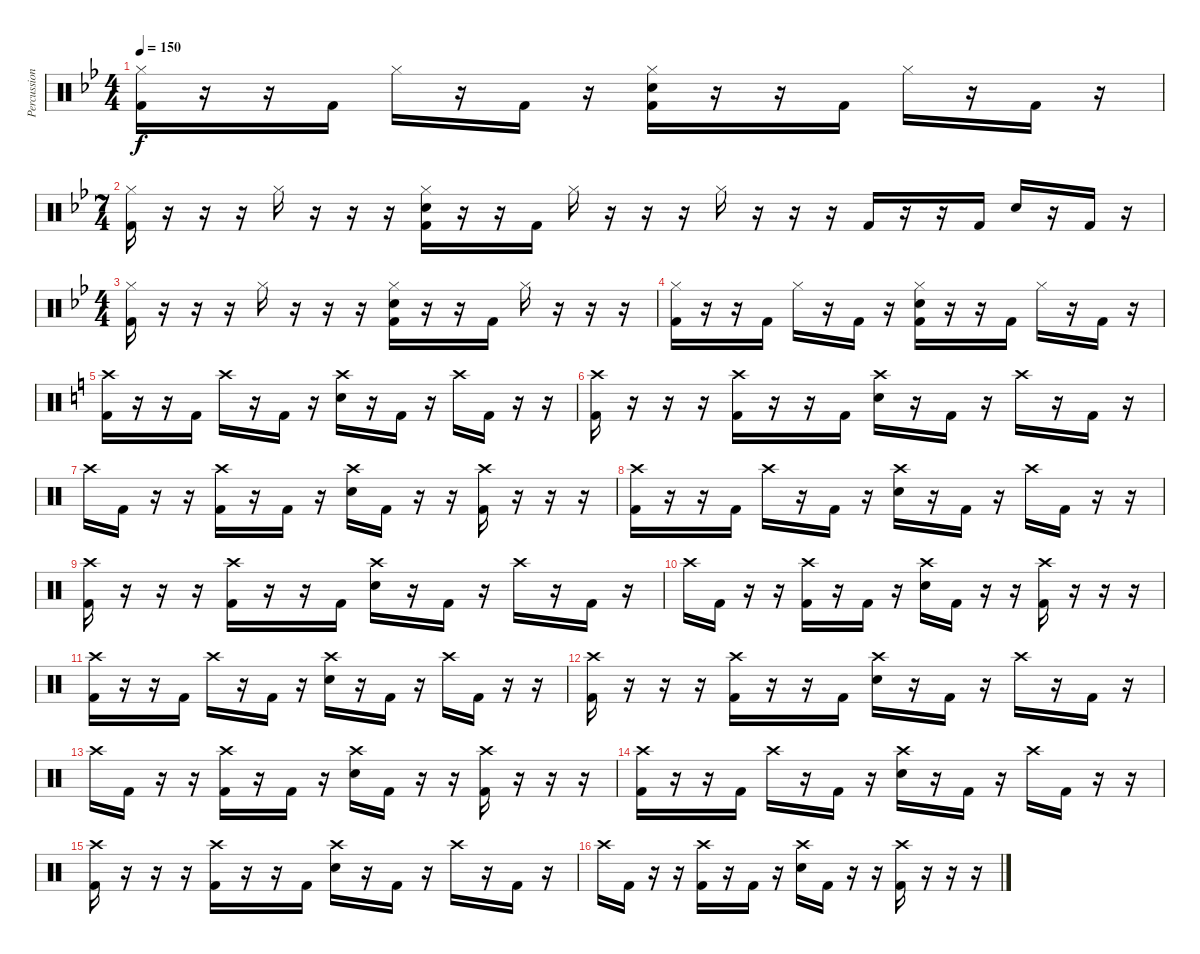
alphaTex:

\track ("Percussion" "Percussion") {instrument percussion}
\staff {score}
\articulation defaults
\ts (4 4)
\tempo 150
\clef neutral
\ks bb
("Hi-Hat (closed)" "Kick (hit) 2").16{dy f} r.16 r.16 "Kick (hit) 2".16 "Hi-Hat (closed)".16 r.16 "Kick (hit) 2".16 r.16 ("Hi-Hat (closed)" "Electric Snare (hit)" "Kick (hit) 2").16 r.16 r.16 "Kick (hit) 2".16 "Hi-Hat (closed)".16 r.16 "Kick (hit) 2".16 r.16 |
\ts (7 4)
("Hi-Hat (closed)" "Kick (hit) 2").16 r.16 r.16 r.16 "Hi-Hat (closed)".16 r.16 r.16 r.16 ("Hi-Hat (closed)" "Electric Snare (hit)" "Kick (hit) 2").16 r.16 r.16 "Kick (hit) 2".16 "Hi-Hat (closed)".16 r.16 r.16 r.16 "Hi-Hat (closed)".16 r.16 r.16 r.16 "Kick (hit) 2".16 r.16 r.16 "Kick (hit) 2".16 "Electric Snare (hit)".16 r.16 "Kick (hit) 2".16 r.16 |
\ts (4 4)
("Hi-Hat (closed)" "Kick (hit) 2").16 r.16 r.16 r.16 "Hi-Hat (closed)".16 r.16 r.16 r.16 ("Hi-Hat (closed)" "Electric Snare (hit)" "Kick (hit) 2").16 r.16 r.16 "Kick (hit) 2".16 "Hi-Hat (closed)".16 r.16 r.16 r.16 |
("Hi-Hat (closed)" "Kick (hit) 2").16 r.16 r.16 "Kick (hit) 2".16 "Hi-Hat (closed)".16 r.16 "Kick (hit) 2".16 r.16 ("Hi-Hat (closed)" "Electric Snare (hit)" "Kick (hit) 2").16 r.16 r.16 "Kick (hit) 2".16 "Hi-Hat (closed)".16 r.16 "Kick (hit) 2".16 r.16 |
\ks c
("Crash high (hit)" "Kick (hit) 2").16 r.16 r.16 "Kick (hit) 2".16 "Crash high (hit)".16 r.16 "Kick (hit) 2".16 r.16 ("Crash high (hit)" "Electric Snare (hit)").16 r.16 "Kick (hit) 2".16 r.16 "Crash high (hit)".16 "Kick (hit) 2".16 r.16 r.16 |
("Crash high (hit)" "Kick (hit) 2").16 r.16 r.16 r.16 ("Crash high (hit)" "Kick (hit) 2").16 r.16 r.16 "Kick (hit) 2".16 ("Crash high (hit)" "Electric Snare (hit)").16 r.16 "Kick (hit) 2".16 r.16 "Crash high (hit)".16 r.16 "Kick (hit) 2".16 r.16 |
"Crash high (hit)".16 "Kick (hit) 2".16 r.16 r.16 ("Crash high (hit)" "Kick (hit) 2").16 r.16 "Kick (hit) 2".16 r.16 ("Crash high (hit)" "Electric Snare (hit)").16 "Kick (hit) 2".16 r.16 r.16 ("Crash high (hit)" "Kick (hit) 2").16 r.16 r.16 r.16 |
("Crash high (hit)" "Kick (hit) 2").16 r.16 r.16 "Kick (hit) 2".16 "Crash high (hit)".16 r.16 "Kick (hit) 2".16 r.16 ("Crash high (hit)" "Electric Snare (hit)").16 r.16 "Kick (hit) 2".16 r.16 "Crash high (hit)".16 "Kick (hit) 2".16 r.16 r.16 |
("Crash high (hit)" "Kick (hit) 2").16 r.16 r.16 r.16 ("Crash high (hit)" "Kick (hit) 2").16 r.16 r.16 "Kick (hit) 2".16 ("Crash high (hit)" "Electric Snare (hit)").16 r.16 "Kick (hit) 2".16 r.16 "Crash high (hit)".16 r.16 "Kick (hit) 2".16 r.16 |
"Crash high (hit)".16 "Kick (hit) 2".16 r.16 r.16 ("Crash high (hit)" "Kick (hit) 2").16 r.16 "Kick (hit) 2".16 r.16 ("Crash high (hit)" "Electric Snare (hit)").16 "Kick (hit) 2".16 r.16 r.16 ("Crash high (hit)" "Kick (hit) 2").16 r.16 r.16 r.16 |
("Crash high (hit)" "Kick (hit) 2").16 r.16 r.16 "Kick (hit) 2".16 "Crash high (hit)".16 r.16 "Kick (hit) 2".16 r.16 ("Crash high (hit)" "Electric Snare (hit)").16 r.16 "Kick (hit) 2".16 r.16 "Crash high (hit)".16 "Kick (hit) 2".16 r.16 r.16 |
("Crash high (hit)" "Kick (hit) 2").16 r.16 r.16 r.16 ("Crash high (hit)" "Kick (hit) 2").16 r.16 r.16 "Kick (hit) 2".16 ("Crash high (hit)" "Electric Snare (hit)").16 r.16 "Kick (hit) 2".16 r.16 "Crash high (hit)".16 r.16 "Kick (hit) 2".16 r.16 |
"Crash high (hit)".16 "Kick (hit) 2".16 r.16 r.16 ("Crash high (hit)" "Kick (hit) 2").16 r.16 "Kick (hit) 2".16 r.16 ("Crash high (hit)" "Electric Snare (hit)").16 "Kick (hit) 2".16 r.16 r.16 ("Crash high (hit)" "Kick (hit) 2").16 r.16 r.16 r.16 |
("Crash high (hit)" "Kick (hit) 2").16 r.16 r.16 "Kick (hit) 2".16 "Crash high (hit)".16 r.16 "Kick (hit) 2".16 r.16 ("Crash high (hit)" "Electric Snare (hit)").16 r.16 "Kick (hit) 2".16 r.16 "Crash high (hit)".16 "Kick (hit) 2".16 r.16 r.16 |
("Crash high (hit)" "Kick (hit) 2").16 r.16 r.16 r.16 ("Crash high (hit)" "Kick (hit) 2").16 r.16 r.16 "Kick (hit) 2".16 ("Crash high (hit)" "Electric Snare (hit)").16 r.16 "Kick (hit) 2".16 r.16 "Crash high (hit)".16 r.16 "Kick (hit) 2".16 r.16 |
"Crash high (hit)".16 "Kick (hit) 2".16 r.16 r.16 ("Crash high (hit)" "Kick (hit) 2").16 r.16 "Kick (hit) 2".16 r.16 ("Crash high (hit)" "Electric Snare (hit)").16 "Kick (hit) 2".16 r.16 r.16 ("Crash high (hit)" "Kick (hit) 2").16 r.16 r.16 r.16
